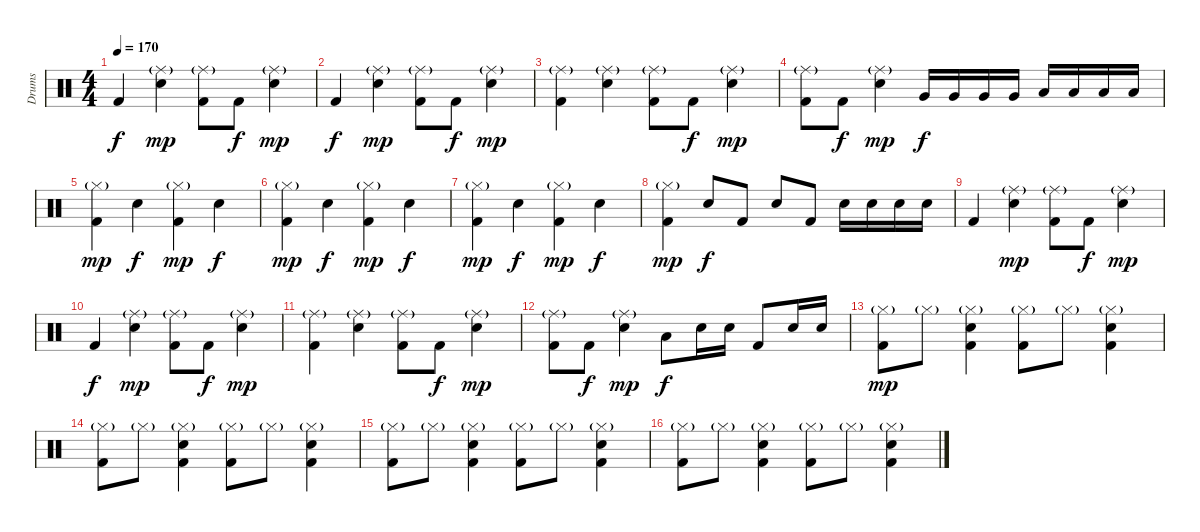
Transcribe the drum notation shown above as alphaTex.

\track ("Drums" "Drums") {instrument percussion}
\staff {score}
\articulation defaults
\ts (4 4)
\tempo 170
\clef neutral
\ks c "Kick (hit) 2".4{dy f}
("Ride (middle)"{g} "Electric Snare (hit)").4{dy mp} ("Ride (middle)"{g} "Kick (hit) 2").8 "Kick (hit) 2".8{dy f} ("Ride (middle)"{g} "Electric Snare (hit)").4{dy mp} |
"Kick (hit) 2".4{dy f} ("Ride (middle)"{g} "Electric Snare (hit)").4{dy mp} ("Ride (middle)"{g} "Kick (hit) 2").8 "Kick (hit) 2".8{dy f} ("Ride (middle)"{g} "Electric Snare (hit)").4{dy mp} |
("Ride (middle)"{g} "Kick (hit) 2").4 ("Ride (middle)"{g} "Electric Snare (hit)").4 ("Ride (middle)"{g} "Kick (hit) 2").8 "Kick (hit) 2".8{dy f} ("Ride (middle)"{g} "Electric Snare (hit)").4{dy mp} |
("Ride (middle)"{g} "Kick (hit) 2").8 "Kick (hit) 2".8{dy f} ("Ride (middle)"{g} "Electric Snare (hit)").4{dy mp} "Very Low Tom (hit)".16{dy f} "Very Low Tom (hit)".16 "Very Low Tom (hit)".16 "Very Low Tom (hit)".16 "Low Floor Tom (hit)".16 "Low Floor Tom (hit)".16 "Low Floor Tom (hit)".16 "Low Floor Tom (hit)".16 |
("Hi-Hat (closed)"{g} "Kick (hit) 2").4{dy mp} "Electric Snare (hit)".4{dy f} ("Hi-Hat (closed)"{g} "Kick (hit) 2").4{dy mp} "Electric Snare (hit)".4{dy f} |
("Hi-Hat (closed)"{g} "Kick (hit) 2").4{dy mp} "Electric Snare (hit)".4{dy f} ("Hi-Hat (closed)"{g} "Kick (hit) 2").4{dy mp} "Electric Snare (hit)".4{dy f} |
("Hi-Hat (closed)"{g} "Kick (hit) 2").4{dy mp} "Electric Snare (hit)".4{dy f} ("Hi-Hat (closed)"{g} "Kick (hit) 2").4{dy mp} "Electric Snare (hit)".4{dy f} |
("Hi-Hat (closed)"{g} "Kick (hit) 2").4{dy mp} "Electric Snare (hit)".8{dy f} "Kick (hit) 2".8 "Electric Snare (hit)".8 "Kick (hit) 2".8 "Electric Snare (hit)".16 "Electric Snare (hit)".16 "Electric Snare (hit)".16 "Electric Snare (hit)".16 |
"Kick (hit) 2".4 ("Ride (middle)"{g} "Electric Snare (hit)").4{dy mp} ("Ride (middle)"{g} "Kick (hit) 2").8 "Kick (hit) 2".8{dy f} ("Ride (middle)"{g} "Electric Snare (hit)").4{dy mp} |
"Kick (hit) 2".4{dy f} ("Ride (middle)"{g} "Electric Snare (hit)").4{dy mp} ("Ride (middle)"{g} "Kick (hit) 2").8 "Kick (hit) 2".8{dy f} ("Ride (middle)"{g} "Electric Snare (hit)").4{dy mp} |
("Ride (middle)"{g} "Kick (hit) 2").4 ("Ride (middle)"{g} "Electric Snare (hit)").4 ("Ride (middle)"{g} "Kick (hit) 2").8 "Kick (hit) 2".8{dy f} ("Ride (middle)"{g} "Electric Snare (hit)").4{dy mp} |
("Ride (middle)"{g} "Kick (hit) 2").8 "Kick (hit) 2".8{dy f} ("Ride (middle)"{g} "Electric Snare (hit)").4{dy mp} "Low Floor Tom (hit)".8{dy f} "Electric Snare (hit)".16 "Electric Snare (hit)".16 "Kick (hit) 2".8 "Electric Snare (hit)".16 "Electric Snare (hit)".16 |
("Hi-Hat (closed)"{g} "Kick (hit) 2").8{dy mp} "Hi-Hat (closed)"{g}.8 ("Hi-Hat (closed)"{g} "Electric Snare (hit)" "Kick (hit) 2").4 ("Hi-Hat (closed)"{g} "Kick (hit) 2").8 "Hi-Hat (closed)"{g}.8 ("Hi-Hat (closed)"{g} "Electric Snare (hit)" "Kick (hit) 2").4 |
("Hi-Hat (closed)"{g} "Kick (hit) 2").8 "Hi-Hat (closed)"{g}.8 ("Hi-Hat (closed)"{g} "Electric Snare (hit)" "Kick (hit) 2").4 ("Hi-Hat (closed)"{g} "Kick (hit) 2").8 "Hi-Hat (closed)"{g}.8 ("Hi-Hat (closed)"{g} "Electric Snare (hit)" "Kick (hit) 2").4 |
("Hi-Hat (closed)"{g} "Kick (hit) 2").8 "Hi-Hat (closed)"{g}.8 ("Hi-Hat (closed)"{g} "Electric Snare (hit)" "Kick (hit) 2").4 ("Hi-Hat (closed)"{g} "Kick (hit) 2").8 "Hi-Hat (closed)"{g}.8 ("Hi-Hat (closed)"{g} "Electric Snare (hit)" "Kick (hit) 2").4 |
("Hi-Hat (closed)"{g} "Kick (hit) 2").8 "Hi-Hat (closed)"{g}.8 ("Hi-Hat (closed)"{g} "Electric Snare (hit)" "Kick (hit) 2").4 ("Hi-Hat (closed)"{g} "Kick (hit) 2").8 "Hi-Hat (closed)"{g}.8 ("Hi-Hat (closed)"{g} "Electric Snare (hit)" "Kick (hit) 2").4
